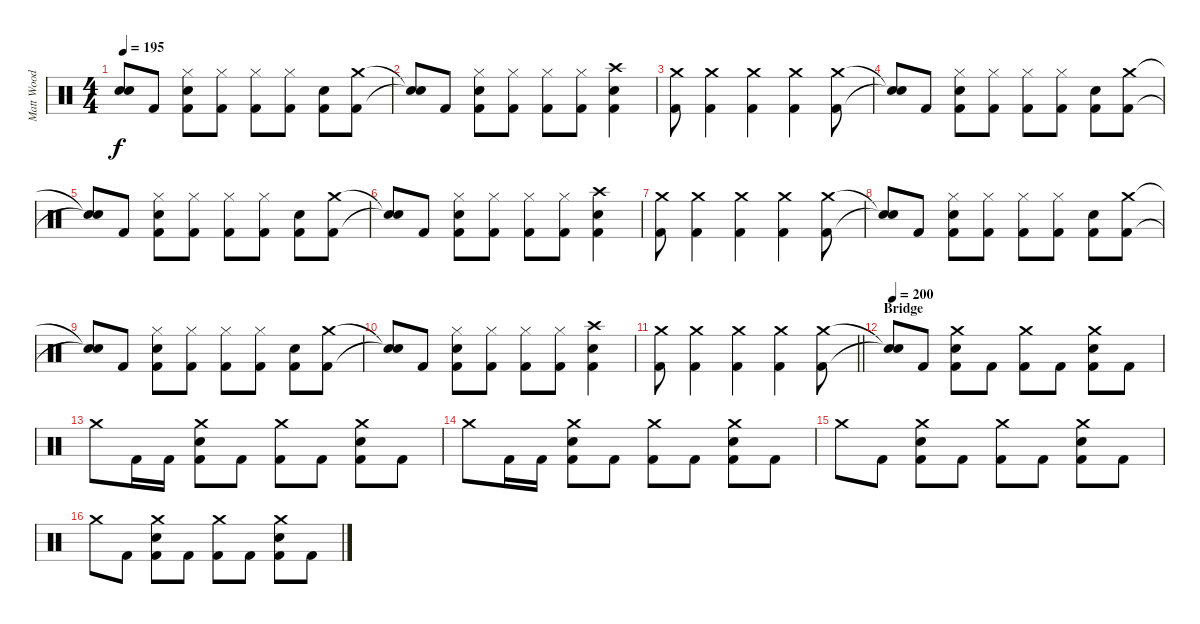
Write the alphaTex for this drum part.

\track ("Matt Wood" "Matt Wood") {instrument percussion}
\staff {score}
\articulation defaults
\ts (4 4)
\tempo 195
\clef neutral
\ks c
("Snare (hit)"{t} "Snare (hit)"{t}).8{dy f} "Kick (hit) 2".8 ("Hi-Hat (closed)" "Snare (hit) 2" "Kick (hit) 2").8 ("Hi-Hat (closed)" "Kick (hit) 2").8 ("Hi-Hat (closed)" "Kick (hit) 2").8 ("Hi-Hat (closed)" "Kick (hit) 2").8 ("Snare (hit) 2" "Kick (hit) 2").8 ("Crash medium (hit)" "Kick (hit) 2").8 |
("Snare (hit)"{t} "Snare (hit)"{t}).8 "Kick (hit) 2".8 ("Hi-Hat (closed)" "Snare (hit) 2" "Kick (hit) 2").8 ("Hi-Hat (closed)" "Kick (hit) 2").8 ("Hi-Hat (closed)" "Kick (hit) 2").8 ("Hi-Hat (closed)" "Kick (hit) 2").8 ("Crash high (hit)" "Snare (hit) 2" "Kick (hit) 2").4 |
("Crash medium (hit)" "Kick (hit) 2").8 ("Crash medium (hit)" "Kick (hit) 2").4 ("Crash medium (hit)" "Kick (hit) 2").4 ("Crash medium (hit)" "Kick (hit) 2").4 ("Crash medium (hit)" "Kick (hit) 2").8 |
("Snare (hit)"{t} "Snare (hit)"{t}).8 "Kick (hit) 2".8 ("Hi-Hat (closed)" "Snare (hit) 2" "Kick (hit) 2").8 ("Hi-Hat (closed)" "Kick (hit) 2").8 ("Hi-Hat (closed)" "Kick (hit) 2").8 ("Hi-Hat (closed)" "Kick (hit) 2").8 ("Snare (hit) 2" "Kick (hit) 2").8 ("Crash medium (hit)" "Kick (hit) 2").8 |
("Snare (hit)"{t} "Snare (hit)"{t}).8 "Kick (hit) 2".8 ("Hi-Hat (closed)" "Snare (hit) 2" "Kick (hit) 2").8 ("Hi-Hat (closed)" "Kick (hit) 2").8 ("Hi-Hat (closed)" "Kick (hit) 2").8 ("Hi-Hat (closed)" "Kick (hit) 2").8 ("Snare (hit) 2" "Kick (hit) 2").8 ("Crash medium (hit)" "Kick (hit) 2").8 |
("Snare (hit)"{t} "Snare (hit)"{t}).8 "Kick (hit) 2".8 ("Hi-Hat (closed)" "Snare (hit) 2" "Kick (hit) 2").8 ("Hi-Hat (closed)" "Kick (hit) 2").8 ("Hi-Hat (closed)" "Kick (hit) 2").8 ("Hi-Hat (closed)" "Kick (hit) 2").8 ("Crash high (hit)" "Snare (hit) 2" "Kick (hit) 2").4 |
("Crash medium (hit)" "Kick (hit) 2").8 ("Crash medium (hit)" "Kick (hit) 2").4 ("Crash medium (hit)" "Kick (hit) 2").4 ("Crash medium (hit)" "Kick (hit) 2").4 ("Crash medium (hit)" "Kick (hit) 2").8 |
("Snare (hit)"{t} "Snare (hit)"{t}).8 "Kick (hit) 2".8 ("Hi-Hat (closed)" "Snare (hit) 2" "Kick (hit) 2").8 ("Hi-Hat (closed)" "Kick (hit) 2").8 ("Hi-Hat (closed)" "Kick (hit) 2").8 ("Hi-Hat (closed)" "Kick (hit) 2").8 ("Snare (hit) 2" "Kick (hit) 2").8 ("Crash medium (hit)" "Kick (hit) 2").8 |
("Snare (hit)"{t} "Snare (hit)"{t}).8 "Kick (hit) 2".8 ("Hi-Hat (closed)" "Snare (hit) 2" "Kick (hit) 2").8 ("Hi-Hat (closed)" "Kick (hit) 2").8 ("Hi-Hat (closed)" "Kick (hit) 2").8 ("Hi-Hat (closed)" "Kick (hit) 2").8 ("Snare (hit) 2" "Kick (hit) 2").8 ("Crash medium (hit)" "Kick (hit) 2").8 |
("Snare (hit)"{t} "Snare (hit)"{t}).8 "Kick (hit) 2".8 ("Hi-Hat (closed)" "Snare (hit) 2" "Kick (hit) 2").8 ("Hi-Hat (closed)" "Kick (hit) 2").8 ("Hi-Hat (closed)" "Kick (hit) 2").8 ("Hi-Hat (closed)" "Kick (hit) 2").8 ("Crash high (hit)" "Snare (hit) 2" "Kick (hit) 2").4 |
\barLineRight lightlight
("Crash medium (hit)" "Kick (hit) 2").8 ("Crash medium (hit)" "Kick (hit) 2").4 ("Crash medium (hit)" "Kick (hit) 2").4 ("Crash medium (hit)" "Kick (hit) 2").4 ("Crash medium (hit)" "Kick (hit) 2").8 |
\section ("" "Bridge")
\tempo 200
("Snare (hit)"{t} "Snare (hit)"{t}).8 "Kick (hit) 2".8 ("Crash medium (hit)" "Snare (hit) 2" "Kick (hit) 2").8 "Kick (hit) 2".8 ("Crash medium (hit)" "Kick (hit) 2").8 "Kick (hit) 2".8 ("Crash medium (hit)" "Snare (hit) 2" "Kick (hit) 2").8 "Kick (hit) 2".8 |
"Crash medium (hit)".8 "Kick (hit) 2".16 "Kick (hit) 2".16 ("Crash medium (hit)" "Snare (hit) 2" "Kick (hit) 2").8 "Kick (hit) 2".8 ("Crash medium (hit)" "Kick (hit) 2").8 "Kick (hit) 2".8 ("Crash medium (hit)" "Snare (hit) 2" "Kick (hit) 2").8 "Kick (hit) 2".8 |
"Crash medium (hit)".8 "Kick (hit) 2".16 "Kick (hit) 2".16 ("Crash medium (hit)" "Snare (hit) 2" "Kick (hit) 2").8 "Kick (hit) 2".8 ("Crash medium (hit)" "Kick (hit) 2").8 "Kick (hit) 2".8 ("Crash medium (hit)" "Snare (hit) 2" "Kick (hit) 2").8 "Kick (hit) 2".8 |
"Crash medium (hit)".8 "Kick (hit) 2".8 ("Crash medium (hit)" "Snare (hit) 2" "Kick (hit) 2").8 "Kick (hit) 2".8 ("Crash medium (hit)" "Kick (hit) 2").8 "Kick (hit) 2".8 ("Crash medium (hit)" "Snare (hit) 2" "Kick (hit) 2").8 "Kick (hit) 2".8 |
"Crash medium (hit)".8 "Kick (hit) 2".8 ("Crash medium (hit)" "Snare (hit) 2" "Kick (hit) 2").8 "Kick (hit) 2".8 ("Crash medium (hit)" "Kick (hit) 2").8 "Kick (hit) 2".8 ("Crash medium (hit)" "Snare (hit) 2" "Kick (hit) 2").8 "Kick (hit) 2".8
